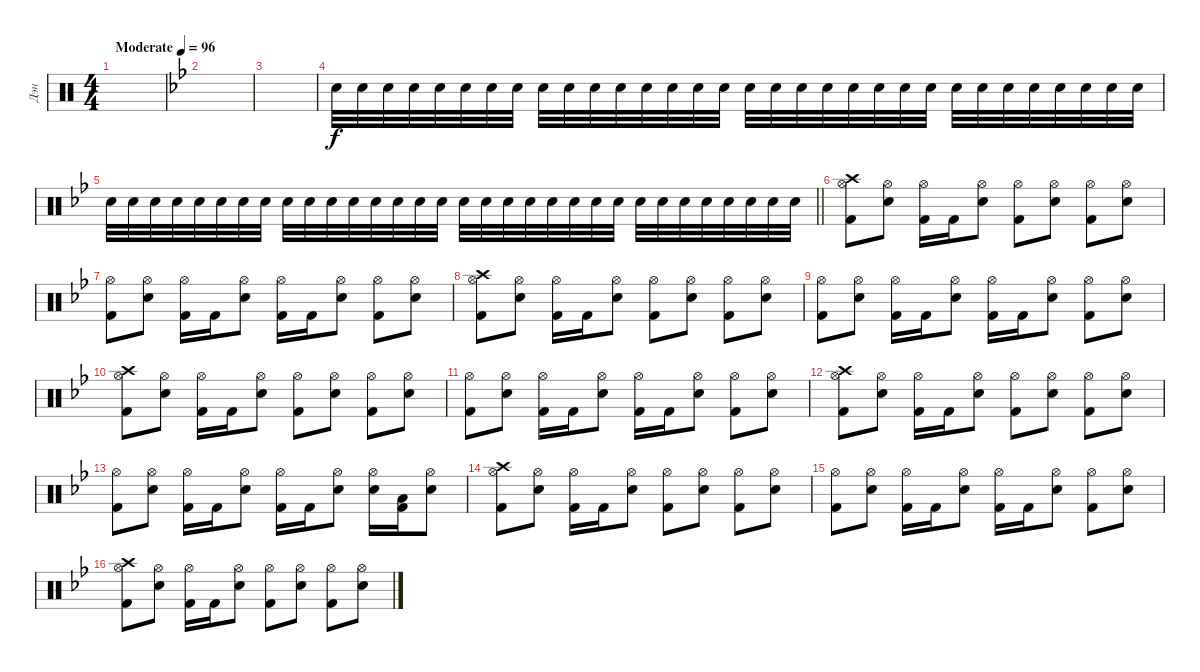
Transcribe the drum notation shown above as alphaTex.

\track ("Дэн" "Дэн") {instrument percussion}
\staff {score}
\articulation defaults
\ts (4 4)
\tempo (96 "Moderate")
\clef neutral
\ks c
|
\ks gminor
|
|
"Electric Snare (hit)".32{volume 13} "Electric Snare (hit)".32 "Electric Snare (hit)".32 "Electric Snare (hit)".32 "Electric Snare (hit)".32 "Electric Snare (hit)".32 "Electric Snare (hit)".32 "Electric Snare (hit)".32 "Electric Snare (hit)".32 "Electric Snare (hit)".32 "Electric Snare (hit)".32 "Electric Snare (hit)".32 "Electric Snare (hit)".32 "Electric Snare (hit)".32 "Electric Snare (hit)".32 "Electric Snare (hit)".32 "Electric Snare (hit)".32 "Electric Snare (hit)".32 "Electric Snare (hit)".32 "Electric Snare (hit)".32 "Electric Snare (hit)".32 "Electric Snare (hit)".32 "Electric Snare (hit)".32 "Electric Snare (hit)".32 "Electric Snare (hit)".32 "Electric Snare (hit)".32 "Electric Snare (hit)".32 "Electric Snare (hit)".32 "Electric Snare (hit)".32 "Electric Snare (hit)".32 "Electric Snare (hit)".32 "Electric Snare (hit)".32 |
\barLineRight lightlight "Electric Snare (hit)".32 "Electric Snare (hit)".32 "Electric Snare (hit)".32 "Electric Snare (hit)".32 "Electric Snare (hit)".32 "Electric Snare (hit)".32 "Electric Snare (hit)".32 "Electric Snare (hit)".32 "Electric Snare (hit)".32 "Electric Snare (hit)".32 "Electric Snare (hit)".32 "Electric Snare (hit)".32 "Electric Snare (hit)".32 "Electric Snare (hit)".32 "Electric Snare (hit)".32 "Electric Snare (hit)".32 "Electric Snare (hit)".32 "Electric Snare (hit)".32 "Electric Snare (hit)".32 "Electric Snare (hit)".32 "Electric Snare (hit)".32 "Electric Snare (hit)".32 "Electric Snare (hit)".32 "Electric Snare (hit)".32 "Electric Snare (hit)".32 "Electric Snare (hit)".32 "Electric Snare (hit)".32 "Electric Snare (hit)".32 "Electric Snare (hit)".32 "Electric Snare (hit)".32 "Electric Snare (hit)".32 "Electric Snare (hit)".32
|
("Crash high (hit)" "Hi-Hat (open)" "Kick (hit) 2").8 ("Hi-Hat (open)" "Electric Snare (hit)").8 ("Hi-Hat (open)" "Kick (hit) 2").16 "Kick (hit) 2".16 ("Hi-Hat (open)" "Electric Snare (hit)").8 ("Hi-Hat (open)" "Kick (hit) 2").8 ("Hi-Hat (open)" "Electric Snare (hit)").8 ("Hi-Hat (open)" "Kick (hit) 2").8 ("Hi-Hat (open)" "Electric Snare (hit)").8 |
("Hi-Hat (open)" "Kick (hit) 2").8 ("Hi-Hat (open)" "Electric Snare (hit)").8 ("Hi-Hat (open)" "Kick (hit) 2").16 "Kick (hit) 2".16 ("Hi-Hat (open)" "Electric Snare (hit)").8 ("Hi-Hat (open)" "Kick (hit) 2").16 "Kick (hit) 2".16 ("Hi-Hat (open)" "Electric Snare (hit)").8 ("Hi-Hat (open)" "Kick (hit) 2").8 ("Hi-Hat (open)" "Electric Snare (hit)").8 |
("Crash high (hit)" "Hi-Hat (open)" "Kick (hit) 2").8 ("Hi-Hat (open)" "Electric Snare (hit)").8 ("Hi-Hat (open)" "Kick (hit) 2").16 "Kick (hit) 2".16 ("Hi-Hat (open)" "Electric Snare (hit)").8 ("Hi-Hat (open)" "Kick (hit) 2").8 ("Hi-Hat (open)" "Electric Snare (hit)").8 ("Hi-Hat (open)" "Kick (hit) 2").8 ("Hi-Hat (open)" "Electric Snare (hit)").8 |
("Hi-Hat (open)" "Kick (hit) 2").8 ("Hi-Hat (open)" "Electric Snare (hit)").8 ("Hi-Hat (open)" "Kick (hit) 2").16 "Kick (hit) 2".16 ("Hi-Hat (open)" "Electric Snare (hit)").8 ("Hi-Hat (open)" "Kick (hit) 2").16 "Kick (hit) 2".16 ("Hi-Hat (open)" "Electric Snare (hit)").8 ("Hi-Hat (open)" "Kick (hit) 2").8 ("Hi-Hat (open)" "Electric Snare (hit)").8 |
("Crash high (hit)" "Hi-Hat (open)" "Kick (hit) 2").8 ("Hi-Hat (open)" "Electric Snare (hit)").8 ("Hi-Hat (open)" "Kick (hit) 2").16 "Kick (hit) 2".16 ("Hi-Hat (open)" "Electric Snare (hit)").8 ("Hi-Hat (open)" "Kick (hit) 2").8 ("Hi-Hat (open)" "Electric Snare (hit)").8 ("Hi-Hat (open)" "Kick (hit) 2").8 ("Hi-Hat (open)" "Electric Snare (hit)").8 |
("Hi-Hat (open)" "Kick (hit) 2").8 ("Hi-Hat (open)" "Electric Snare (hit)").8 ("Hi-Hat (open)" "Kick (hit) 2").16 "Kick (hit) 2".16 ("Hi-Hat (open)" "Electric Snare (hit)").8 ("Hi-Hat (open)" "Kick (hit) 2").16 "Kick (hit) 2".16 ("Hi-Hat (open)" "Electric Snare (hit)").8 ("Hi-Hat (open)" "Kick (hit) 2").8 ("Hi-Hat (open)" "Electric Snare (hit)").8 |
("Crash high (hit)" "Hi-Hat (open)" "Kick (hit) 2").8 ("Hi-Hat (open)" "Electric Snare (hit)").8 ("Hi-Hat (open)" "Kick (hit) 2").16 "Kick (hit) 2".16 ("Hi-Hat (open)" "Electric Snare (hit)").8 ("Hi-Hat (open)" "Kick (hit) 2").8 ("Hi-Hat (open)" "Electric Snare (hit)").8 ("Hi-Hat (open)" "Kick (hit) 2").8 ("Hi-Hat (open)" "Electric Snare (hit)").8 |
("Hi-Hat (open)" "Kick (hit) 2").8 ("Hi-Hat (open)" "Electric Snare (hit)").8 ("Hi-Hat (open)" "Kick (hit) 2").16 "Kick (hit) 2".16 ("Hi-Hat (open)" "Electric Snare (hit)").8 ("Hi-Hat (open)" "Kick (hit) 2").16 "Kick (hit) 2".16 ("Hi-Hat (open)" "Electric Snare (hit)").8 ("Hi-Hat (open)" "Electric Snare (hit)").16 ("Low Tom (hit)" "Kick (hit) 2").16 ("Hi-Hat (open)" "Electric Snare (hit)").8 |
("Crash high (hit)" "Hi-Hat (open)" "Kick (hit) 2").8 ("Hi-Hat (open)" "Electric Snare (hit)").8 ("Hi-Hat (open)" "Kick (hit) 2").16 "Kick (hit) 2".16 ("Hi-Hat (open)" "Electric Snare (hit)").8 ("Hi-Hat (open)" "Kick (hit) 2").8 ("Hi-Hat (open)" "Electric Snare (hit)").8 ("Hi-Hat (open)" "Kick (hit) 2").8 ("Hi-Hat (open)" "Electric Snare (hit)").8 |
("Hi-Hat (open)" "Kick (hit) 2").8 ("Hi-Hat (open)" "Electric Snare (hit)").8 ("Hi-Hat (open)" "Kick (hit) 2").16 "Kick (hit) 2".16 ("Hi-Hat (open)" "Electric Snare (hit)").8 ("Hi-Hat (open)" "Kick (hit) 2").16 "Kick (hit) 2".16 ("Hi-Hat (open)" "Electric Snare (hit)").8 ("Hi-Hat (open)" "Kick (hit) 2").8 ("Hi-Hat (open)" "Electric Snare (hit)").8 |
("Crash high (hit)" "Hi-Hat (open)" "Kick (hit) 2").8 ("Hi-Hat (open)" "Electric Snare (hit)").8 ("Hi-Hat (open)" "Kick (hit) 2").16 "Kick (hit) 2".16 ("Hi-Hat (open)" "Electric Snare (hit)").8 ("Hi-Hat (open)" "Kick (hit) 2").8 ("Hi-Hat (open)" "Electric Snare (hit)").8 ("Hi-Hat (open)" "Kick (hit) 2").8 ("Hi-Hat (open)" "Electric Snare (hit)").8
